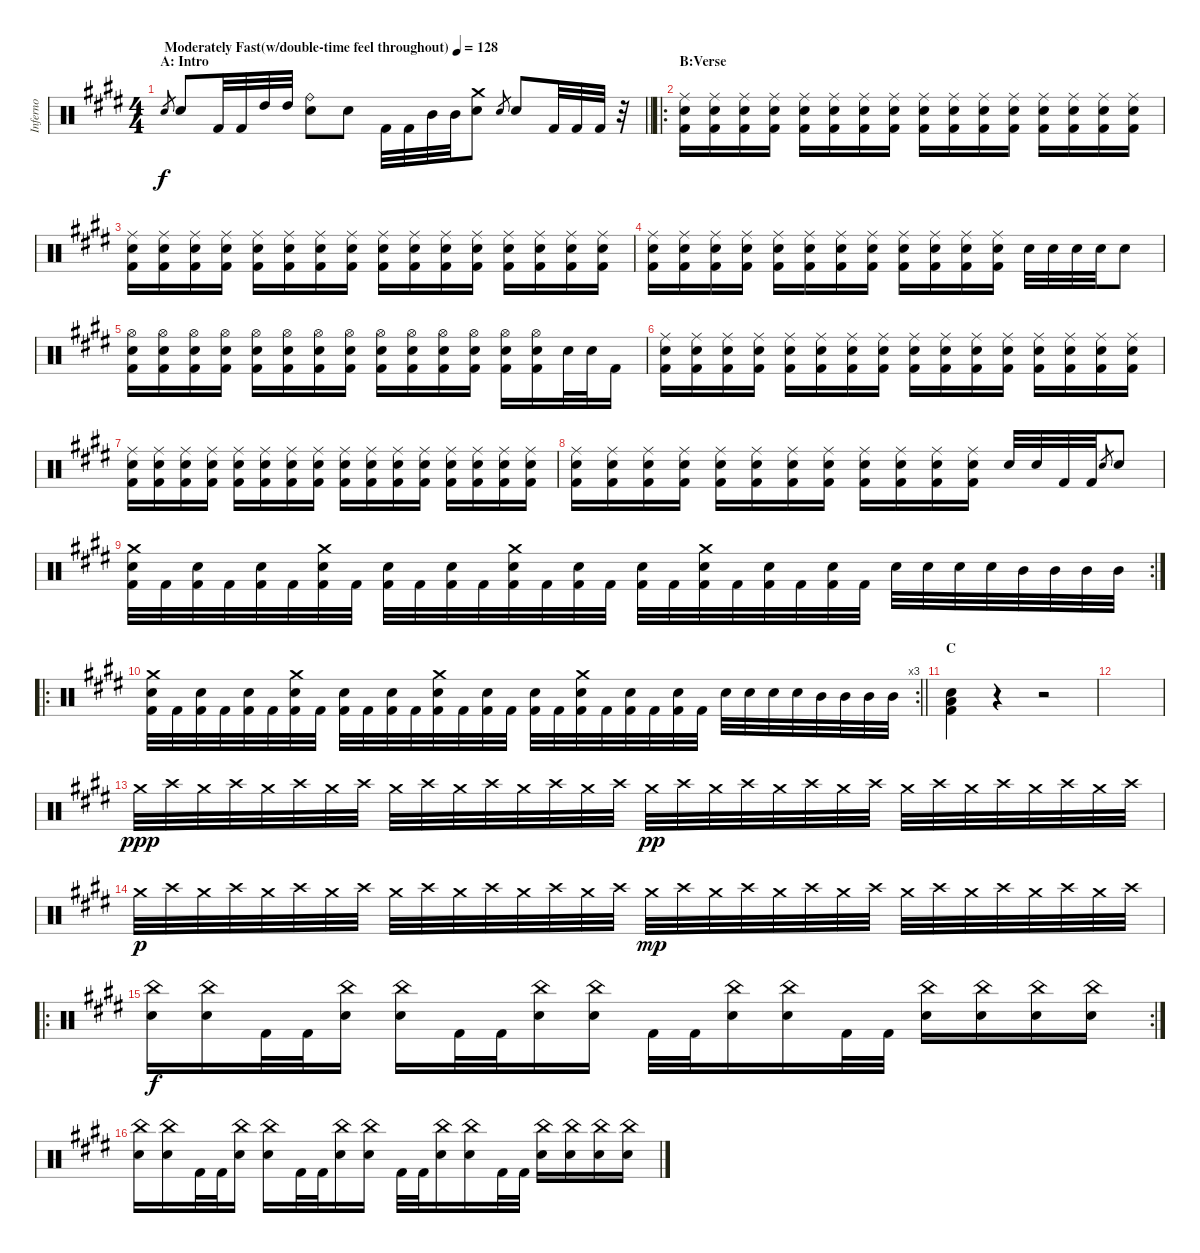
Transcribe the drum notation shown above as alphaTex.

\track ("Inferno" "Inferno") {instrument percussion}
\staff
\articulation defaults
\ts (4 4)
\section ("" "A: Intro")
\tempo (128 "Moderately Fast(w/double-time feel throughout)")
\clef neutral
\barLineRight lightlight
\ks c#minor "Snare (hit) 2".8{gr dy f} "Snare (hit) 2".8 "Kick (hit) 2".32 "Kick (hit) 2".32 "High Tom (hit)".32 "High Tom (hit)".32
("Ride (bell)" "Snare (hit) 2").8 "Snare (hit) 2".8 "Kick (hit) 2".32 "Kick (hit) 2".32 "Mid Tom (hit)".32 "Mid Tom (hit)".32 ("Crash medium (hit)" "Snare (hit) 2").8 "Snare (hit) 2".8{gr} "Snare (hit) 2".8 "Kick (hit) 2".32 "Kick (hit) 2".32 "Kick (hit) 2".32 r.32 |
\ro
\section ("" "B:Verse")
("Ride (middle)" "Snare (hit) 2" "Kick (hit) 2").16 ("Ride (middle)" "Snare (hit) 2" "Kick (hit) 2").16 ("Ride (middle)" "Snare (hit) 2" "Kick (hit) 2").16 ("Ride (middle)" "Snare (hit) 2" "Kick (hit) 2").16 ("Ride (middle)" "Snare (hit) 2" "Kick (hit) 2").16 ("Ride (middle)" "Snare (hit) 2" "Kick (hit) 2").16 ("Ride (middle)" "Snare (hit) 2" "Kick (hit) 2").16 ("Ride (middle)" "Snare (hit) 2" "Kick (hit) 2").16 ("Ride (middle)" "Snare (hit) 2" "Kick (hit) 2").16 ("Ride (middle)" "Snare (hit) 2" "Kick (hit) 2").16 ("Ride (middle)" "Snare (hit) 2" "Kick (hit) 2").16 ("Ride (middle)" "Snare (hit) 2" "Kick (hit) 2").16 ("Ride (middle)" "Snare (hit) 2" "Kick (hit) 2").16 ("Ride (middle)" "Snare (hit) 2" "Kick (hit) 2").16 ("Ride (middle)" "Snare (hit) 2" "Kick (hit) 2").16 ("Ride (middle)" "Snare (hit) 2" "Kick (hit) 2").16 |
("Ride (middle)" "Snare (hit) 2" "Kick (hit) 2").16 ("Ride (middle)" "Snare (hit) 2" "Kick (hit) 2").16 ("Ride (middle)" "Snare (hit) 2" "Kick (hit) 2").16 ("Ride (middle)" "Snare (hit) 2" "Kick (hit) 2").16 ("Ride (middle)" "Snare (hit) 2" "Kick (hit) 2").16 ("Ride (middle)" "Snare (hit) 2" "Kick (hit) 2").16 ("Ride (middle)" "Snare (hit) 2" "Kick (hit) 2").16 ("Ride (middle)" "Snare (hit) 2" "Kick (hit) 2").16 ("Ride (middle)" "Snare (hit) 2" "Kick (hit) 2").16 ("Ride (middle)" "Snare (hit) 2" "Kick (hit) 2").16 ("Ride (middle)" "Snare (hit) 2" "Kick (hit) 2").16 ("Ride (middle)" "Snare (hit) 2" "Kick (hit) 2").16 ("Ride (middle)" "Snare (hit) 2" "Kick (hit) 2").16 ("Ride (middle)" "Snare (hit) 2" "Kick (hit) 2").16 ("Ride (middle)" "Snare (hit) 2" "Kick (hit) 2").16 ("Ride (middle)" "Snare (hit) 2" "Kick (hit) 2").16 |
("Ride (middle)" "Snare (hit) 2" "Kick (hit) 2").16 ("Ride (middle)" "Snare (hit) 2" "Kick (hit) 2").16 ("Ride (middle)" "Snare (hit) 2" "Kick (hit) 2").16 ("Ride (middle)" "Snare (hit) 2" "Kick (hit) 2").16 ("Ride (middle)" "Snare (hit) 2" "Kick (hit) 2").16 ("Ride (middle)" "Snare (hit) 2" "Kick (hit) 2").16 ("Ride (middle)" "Snare (hit) 2" "Kick (hit) 2").16 ("Ride (middle)" "Snare (hit) 2" "Kick (hit) 2").16 ("Ride (middle)" "Snare (hit) 2" "Kick (hit) 2").16 ("Ride (middle)" "Snare (hit) 2" "Kick (hit) 2").16 ("Ride (middle)" "Snare (hit) 2" "Kick (hit) 2").16 ("Ride (middle)" "Snare (hit) 2" "Kick (hit) 2").16 "Snare (hit) 2".32 "Snare (hit) 2".32 "Snare (hit) 2".32 "Snare (hit) 2".32 "Snare (hit) 2".8 |
("Hi-Hat (open)" "Snare (hit) 2" "Kick (hit) 2").16 ("Hi-Hat (open)" "Snare (hit) 2" "Kick (hit) 2").16 ("Hi-Hat (open)" "Snare (hit) 2" "Kick (hit) 2").16 ("Hi-Hat (open)" "Snare (hit) 2" "Kick (hit) 2").16 ("Hi-Hat (open)" "Snare (hit) 2" "Kick (hit) 2").16 ("Hi-Hat (open)" "Snare (hit) 2" "Kick (hit) 2").16 ("Hi-Hat (open)" "Snare (hit) 2" "Kick (hit) 2").16 ("Hi-Hat (open)" "Snare (hit) 2" "Kick (hit) 2").16 ("Hi-Hat (open)" "Snare (hit) 2" "Kick (hit) 2").16 ("Hi-Hat (open)" "Snare (hit) 2" "Kick (hit) 2").16 ("Hi-Hat (open)" "Snare (hit) 2" "Kick (hit) 2").16 ("Hi-Hat (open)" "Snare (hit) 2" "Kick (hit) 2").16 ("Hi-Hat (open)" "Snare (hit) 2" "Kick (hit) 2").16 ("Hi-Hat (open)" "Snare (hit) 2" "Kick (hit) 2").16 "Snare (hit) 2".32 "Snare (hit) 2".32 "Kick (hit) 2".16 |
("Ride (middle)" "Snare (hit) 2" "Kick (hit) 2").16 ("Ride (middle)" "Snare (hit) 2" "Kick (hit) 2").16 ("Ride (middle)" "Snare (hit) 2" "Kick (hit) 2").16 ("Ride (middle)" "Snare (hit) 2" "Kick (hit) 2").16 ("Ride (middle)" "Snare (hit) 2" "Kick (hit) 2").16 ("Ride (middle)" "Snare (hit) 2" "Kick (hit) 2").16 ("Ride (middle)" "Snare (hit) 2" "Kick (hit) 2").16 ("Ride (middle)" "Snare (hit) 2" "Kick (hit) 2").16 ("Ride (middle)" "Snare (hit) 2" "Kick (hit) 2").16 ("Ride (middle)" "Snare (hit) 2" "Kick (hit) 2").16 ("Ride (middle)" "Snare (hit) 2" "Kick (hit) 2").16 ("Ride (middle)" "Snare (hit) 2" "Kick (hit) 2").16 ("Ride (middle)" "Snare (hit) 2" "Kick (hit) 2").16 ("Ride (middle)" "Snare (hit) 2" "Kick (hit) 2").16 ("Ride (middle)" "Snare (hit) 2" "Kick (hit) 2").16 ("Ride (middle)" "Snare (hit) 2" "Kick (hit) 2").16 |
("Ride (middle)" "Snare (hit) 2" "Kick (hit) 2").16 ("Ride (middle)" "Snare (hit) 2" "Kick (hit) 2").16 ("Ride (middle)" "Snare (hit) 2" "Kick (hit) 2").16 ("Ride (middle)" "Snare (hit) 2" "Kick (hit) 2").16 ("Ride (middle)" "Snare (hit) 2" "Kick (hit) 2").16 ("Ride (middle)" "Snare (hit) 2" "Kick (hit) 2").16 ("Ride (middle)" "Snare (hit) 2" "Kick (hit) 2").16 ("Ride (middle)" "Snare (hit) 2" "Kick (hit) 2").16 ("Ride (middle)" "Snare (hit) 2" "Kick (hit) 2").16 ("Ride (middle)" "Snare (hit) 2" "Kick (hit) 2").16 ("Ride (middle)" "Snare (hit) 2" "Kick (hit) 2").16 ("Ride (middle)" "Snare (hit) 2" "Kick (hit) 2").16 ("Ride (middle)" "Snare (hit) 2" "Kick (hit) 2").16 ("Ride (middle)" "Snare (hit) 2" "Kick (hit) 2").16 ("Ride (middle)" "Snare (hit) 2" "Kick (hit) 2").16 ("Ride (middle)" "Snare (hit) 2" "Kick (hit) 2").16 |
("Ride (middle)" "Snare (hit) 2" "Kick (hit) 2").16 ("Ride (middle)" "Snare (hit) 2" "Kick (hit) 2").16 ("Ride (middle)" "Snare (hit) 2" "Kick (hit) 2").16 ("Ride (middle)" "Snare (hit) 2" "Kick (hit) 2").16 ("Ride (middle)" "Snare (hit) 2" "Kick (hit) 2").16 ("Ride (middle)" "Snare (hit) 2" "Kick (hit) 2").16 ("Ride (middle)" "Snare (hit) 2" "Kick (hit) 2").16 ("Ride (middle)" "Snare (hit) 2" "Kick (hit) 2").16 ("Ride (middle)" "Snare (hit) 2" "Kick (hit) 2").16 ("Ride (middle)" "Snare (hit) 2" "Kick (hit) 2").16 ("Ride (middle)" "Snare (hit) 2" "Kick (hit) 2").16 ("Ride (middle)" "Snare (hit) 2" "Kick (hit) 2").16 "Snare (hit) 2".32 "Snare (hit) 2".32 "Kick (hit) 2".32 "Kick (hit) 2".32 "Snare (hit) 2".8{gr} "Snare (hit) 2".8 |
\rc 2
("Crash medium (hit)" "Snare (hit) 2" "Kick (hit) 2").32 "Kick (hit) 2".32 ("Snare (hit) 2" "Kick (hit) 2").32 "Kick (hit) 2".32 ("Snare (hit) 2" "Kick (hit) 2").32 "Kick (hit) 2".32 ("Crash medium (hit)" "Snare (hit) 2" "Kick (hit) 2").32 "Kick (hit) 2".32 ("Snare (hit) 2" "Kick (hit) 2").32 "Kick (hit) 2".32 ("Snare (hit) 2" "Kick (hit) 2").32 "Kick (hit) 2".32 ("Crash medium (hit)" "Snare (hit) 2" "Kick (hit) 2").32 "Kick (hit) 2".32 ("Snare (hit) 2" "Kick (hit) 2").32 "Kick (hit) 2".32 ("Snare (hit) 2" "Kick (hit) 2").32 "Kick (hit) 2".32 ("Crash medium (hit)" "Snare (hit) 2" "Kick (hit) 2").32 "Kick (hit) 2".32 ("Snare (hit) 2" "Kick (hit) 2").32 "Kick (hit) 2".32 ("Snare (hit) 2" "Kick (hit) 2").32 "Kick (hit) 2".32 "Snare (hit) 2".32 "Snare (hit) 2".32 "Snare (hit) 2".32 "Snare (hit) 2".32 "Mid Tom (hit)".32 "Mid Tom (hit)".32 "Mid Tom (hit)".32 "Mid Tom (hit)".32 |
\ro
\rc 3
\barLineRight lightlight
("Crash medium (hit)" "Snare (hit) 2" "Kick (hit) 2").32 "Kick (hit) 2".32 ("Snare (hit) 2" "Kick (hit) 2").32 "Kick (hit) 2".32 ("Snare (hit) 2" "Kick (hit) 2").32 "Kick (hit) 2".32 ("Crash medium (hit)" "Snare (hit) 2" "Kick (hit) 2").32 "Kick (hit) 2".32 ("Snare (hit) 2" "Kick (hit) 2").32 "Kick (hit) 2".32 ("Snare (hit) 2" "Kick (hit) 2").32 "Kick (hit) 2".32 ("Crash medium (hit)" "Snare (hit) 2" "Kick (hit) 2").32 "Kick (hit) 2".32 ("Snare (hit) 2" "Kick (hit) 2").32 "Kick (hit) 2".32 ("Snare (hit) 2" "Kick (hit) 2").32 "Kick (hit) 2".32 ("Crash medium (hit)" "Snare (hit) 2" "Kick (hit) 2").32 "Kick (hit) 2".32 ("Snare (hit) 2" "Kick (hit) 2").32 "Kick (hit) 2".32 ("Snare (hit) 2" "Kick (hit) 2").32 "Kick (hit) 2".32 "Snare (hit) 2".32 "Snare (hit) 2".32 "Snare (hit) 2".32 "Snare (hit) 2".32 "Mid Tom (hit)".32 "Mid Tom (hit)".32 "Mid Tom (hit)".32 "Mid Tom (hit)".32 |
\section ("" "C")
("Low Tom (hit)" "Snare (hit) 2" "Kick (hit) 2").4 r.4 r.2 |
|
"Crash medium (hit)".32{dy ppp} "Crash high (hit)".32 "Crash medium (hit)".32 "Crash high (hit)".32 "Crash medium (hit)".32 "Crash high (hit)".32 "Crash medium (hit)".32 "Crash high (hit)".32 "Crash medium (hit)".32 "Crash high (hit)".32 "Crash medium (hit)".32 "Crash high (hit)".32 "Crash medium (hit)".32 "Crash high (hit)".32 "Crash medium (hit)".32 "Crash high (hit)".32 "Crash medium (hit)".32{dy pp} "Crash high (hit)".32 "Crash medium (hit)".32 "Crash high (hit)".32 "Crash medium (hit)".32 "Crash high (hit)".32 "Crash medium (hit)".32 "Crash high (hit)".32 "Crash medium (hit)".32 "Crash high (hit)".32 "Crash medium (hit)".32 "Crash high (hit)".32 "Crash medium (hit)".32 "Crash high (hit)".32 "Crash medium (hit)".32 "Crash high (hit)".32 |
"Crash medium (hit)".32{dy p} "Crash high (hit)".32 "Crash medium (hit)".32 "Crash high (hit)".32 "Crash medium (hit)".32 "Crash high (hit)".32 "Crash medium (hit)".32 "Crash high (hit)".32 "Crash medium (hit)".32 "Crash high (hit)".32 "Crash medium (hit)".32 "Crash high (hit)".32 "Crash medium (hit)".32 "Crash high (hit)".32 "Crash medium (hit)".32 "Crash high (hit)".32 "Crash medium (hit)".32{dy mp} "Crash high (hit)".32 "Crash medium (hit)".32 "Crash high (hit)".32 "Crash medium (hit)".32 "Crash high (hit)".32 "Crash medium (hit)".32 "Crash high (hit)".32 "Crash medium (hit)".32 "Crash high (hit)".32 "Crash medium (hit)".32 "Crash high (hit)".32 "Crash medium (hit)".32 "Crash high (hit)".32 "Crash medium (hit)".32 "Crash high (hit)".32 |
\ro
\rc 2
("China (hit)" "Snare (hit) 2").16{dy f} ("China (hit)" "Snare (hit) 2").16 "Kick (hit) 2".32 "Kick (hit) 2".32 ("China (hit)" "Snare (hit) 2").16 ("China (hit)" "Snare (hit) 2").16 "Kick (hit) 2".32 "Kick (hit) 2".32 ("China (hit)" "Snare (hit) 2").16 ("China (hit)" "Snare (hit) 2").16 "Kick (hit) 2".32 "Kick (hit) 2".32 ("China (hit)" "Snare (hit) 2").16 ("China (hit)" "Snare (hit) 2").16 "Kick (hit) 2".32 "Kick (hit) 2".32 ("China (hit)" "Snare (hit) 2").16 ("China (hit)" "Snare (hit) 2").16 ("China (hit)" "Snare (hit) 2").16 ("China (hit)" "Snare (hit) 2").16 |
("China (hit)" "Snare (hit) 2").16 ("China (hit)" "Snare (hit) 2").16 "Kick (hit) 2".32 "Kick (hit) 2".32 ("China (hit)" "Snare (hit) 2").16 ("China (hit)" "Snare (hit) 2").16 "Kick (hit) 2".32 "Kick (hit) 2".32 ("China (hit)" "Snare (hit) 2").16 ("China (hit)" "Snare (hit) 2").16 "Kick (hit) 2".32 "Kick (hit) 2".32 ("China (hit)" "Snare (hit) 2").16 ("China (hit)" "Snare (hit) 2").16 "Kick (hit) 2".32 "Kick (hit) 2".32 ("China (hit)" "Snare (hit) 2").16 ("China (hit)" "Snare (hit) 2").16 ("China (hit)" "Snare (hit) 2").16 ("China (hit)" "Snare (hit) 2").16
